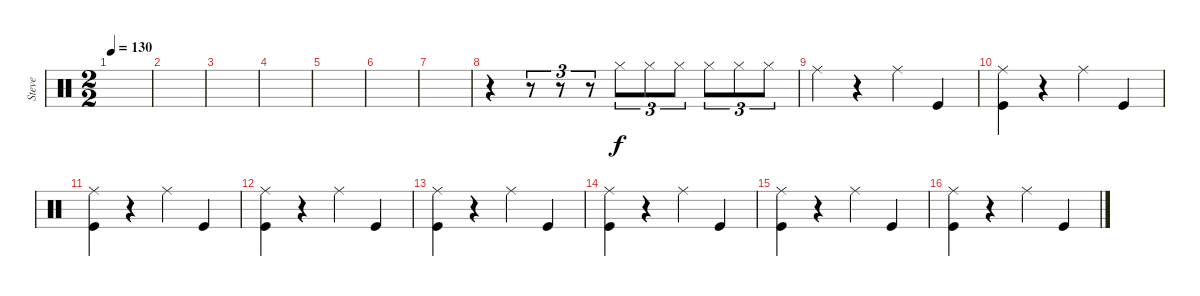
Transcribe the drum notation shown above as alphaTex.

\track ("Steve" "Steve") {instrument percussion}
\staff {score}
\articulation defaults
\ts (2 2)
\tempo 130
\clef neutral
\ks c
|
|
|
|
|
|
|
r.4 r.8{tu (3 2)} r.8{tu (3 2)} r.8{tu (3 2)} "Hi-Hat (closed)".8{tu (3 2)} "Hi-Hat (closed)".8{tu (3 2)} "Hi-Hat (closed)".8{tu (3 2)} "Hi-Hat (closed)".8{tu (3 2)} "Hi-Hat (closed)".8{tu (3 2)} "Hi-Hat (closed)".8{tu (3 2)} |
"Ride (middle)".4 r.4 "Ride (middle)".4 "Kick (hit)".4 |
("Ride (middle)" "Kick (hit)").4 r.4 "Ride (middle)".4 "Kick (hit)".4 |
("Ride (middle)" "Kick (hit)").4 r.4 "Ride (middle)".4 "Kick (hit)".4 |
("Ride (middle)" "Kick (hit)").4 r.4 "Ride (middle)".4 "Kick (hit)".4 |
("Ride (middle)" "Kick (hit)").4 r.4 "Ride (middle)".4 "Kick (hit)".4 |
("Ride (middle)" "Kick (hit)").4 r.4 "Ride (middle)".4 "Kick (hit)".4 |
("Ride (middle)" "Kick (hit)").4 r.4 "Ride (middle)".4 "Kick (hit)".4 |
("Ride (middle)" "Kick (hit)").4 r.4 "Ride (middle)".4 "Kick (hit)".4
